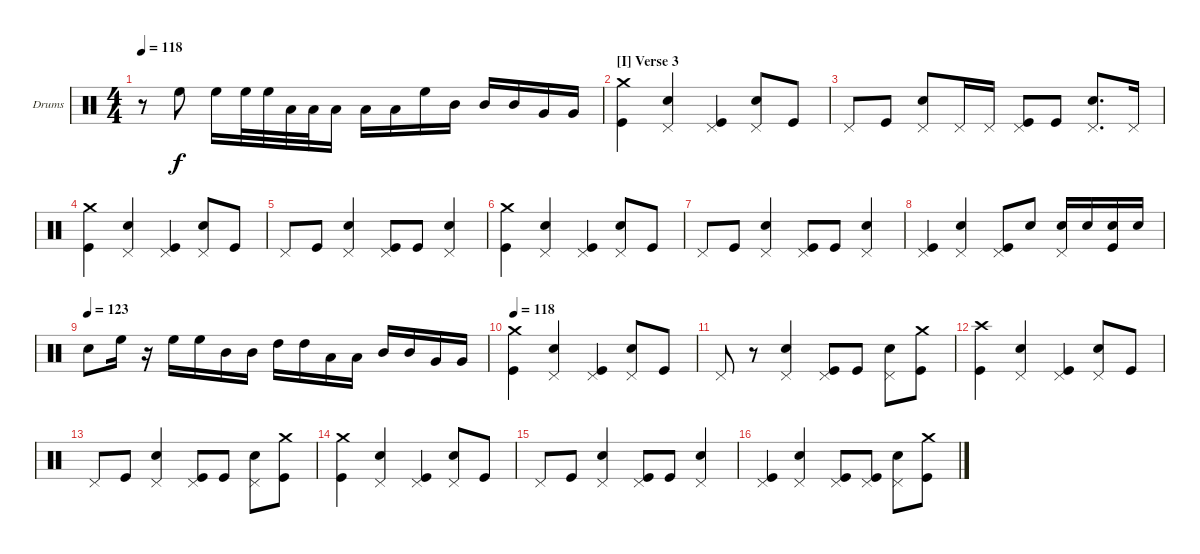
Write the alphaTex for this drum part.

\bracketExtendMode groupsimilarinstruments
\firstSystemTrackNameOrientation horizontal
\otherSystemsTrackNameOrientation horizontal
\track ("Vinny Appice" "Drums") {instrument percussion}
\staff {score}
\articulation defaults
\ts (4 4)
\tempo 118
\clef neutral
\ks c
r.8{dy f} "High Floor Tom (hit)".8 "High Floor Tom (hit)".16 "High Floor Tom (hit)".32 "High Floor Tom (hit)".32 "Low Tom (hit)".32 "Low Tom (hit)".32 "Low Tom (hit)".16 "Low Tom (hit)".16 "Low Tom (hit)".16 "High Floor Tom (hit)".16 "Mid Tom (hit)".16 "Mid Tom (hit)".16 "Mid Tom (hit)".16 "Very Low Tom (hit)".16 "Very Low Tom (hit)".16 |
\section ("I" "Verse 3")
("Kick (hit)" "Crash medium (hit)").4 ("Pedal Hi-Hat (hit)" "Snare (hit) 2").4 ("Pedal Hi-Hat (hit)" "Kick (hit)").4 ("Pedal Hi-Hat (hit)" "Snare (hit) 2").8 "Kick (hit)".8 |
"Pedal Hi-Hat (hit)".8 "Kick (hit)".8 ("Pedal Hi-Hat (hit)" "Snare (hit) 2").8 "Pedal Hi-Hat (hit)".16 "Pedal Hi-Hat (hit)".16 ("Pedal Hi-Hat (hit)" "Kick (hit)").8 "Kick (hit)".8 ("Pedal Hi-Hat (hit)" "Snare (hit) 2").8{d} "Pedal Hi-Hat (hit)".16 |
("Crash medium (hit)" "Kick (hit)").4 ("Pedal Hi-Hat (hit)" "Snare (hit) 2").4 ("Pedal Hi-Hat (hit)" "Kick (hit)").4 ("Pedal Hi-Hat (hit)" "Snare (hit) 2").8 "Kick (hit)".8 |
"Pedal Hi-Hat (hit)".8 "Kick (hit)".8 ("Pedal Hi-Hat (hit)" "Snare (hit) 2").4 ("Pedal Hi-Hat (hit)" "Kick (hit)").8 "Kick (hit)".8 ("Pedal Hi-Hat (hit)" "Snare (hit) 2").4 |
("Kick (hit)" "Crash medium (hit)").4 ("Pedal Hi-Hat (hit)" "Snare (hit) 2").4 ("Pedal Hi-Hat (hit)" "Kick (hit)").4 ("Pedal Hi-Hat (hit)" "Snare (hit) 2").8 "Kick (hit)".8 |
"Pedal Hi-Hat (hit)".8 "Kick (hit)".8 ("Pedal Hi-Hat (hit)" "Snare (hit) 2").4 ("Pedal Hi-Hat (hit)" "Kick (hit)").8 "Kick (hit)".8 ("Pedal Hi-Hat (hit)" "Snare (hit) 2").4 |
("Pedal Hi-Hat (hit)" "Kick (hit)").4 ("Pedal Hi-Hat (hit)" "Snare (hit) 2").4 ("Pedal Hi-Hat (hit)" "Kick (hit)").8 "Snare (hit) 2".8 ("Snare (hit) 2" "Pedal Hi-Hat (hit)").16 "Snare (hit) 2".16 ("Snare (hit) 2" "Kick (hit)").16 "Snare (hit) 2".16 |
\tempo (123)
"Snare (hit) 2".8 "High Floor Tom (hit)".16 r.16 "High Floor Tom (hit)".16 "High Floor Tom (hit)".16 "Mid Tom (hit)".16 "Mid Tom (hit)".16 "High Tom (hit)".16 "High Tom (hit)".16 "Low Tom (hit)".16 "Low Tom (hit)".16 "Mid Tom (hit)".16 "Mid Tom (hit)".16 "Very Low Tom (hit)".16 "Very Low Tom (hit)".16 |
\tempo 118
("Kick (hit)" "Crash medium (hit)").4 ("Pedal Hi-Hat (hit)" "Snare (hit) 2").4 ("Pedal Hi-Hat (hit)" "Kick (hit)").4 ("Pedal Hi-Hat (hit)" "Snare (hit) 2").8 "Kick (hit)".8 |
"Pedal Hi-Hat (hit)".8 r.8 ("Pedal Hi-Hat (hit)" "Snare (hit) 2").4 ("Pedal Hi-Hat (hit)" "Kick (hit)").8 "Kick (hit)".8 ("Pedal Hi-Hat (hit)" "Snare (hit) 2").8 ("Kick (hit)" "Crash medium (hit)").8 |
("Crash high (hit)" "Kick (hit)").4 ("Pedal Hi-Hat (hit)" "Snare (hit) 2").4 ("Pedal Hi-Hat (hit)" "Kick (hit)").4 ("Pedal Hi-Hat (hit)" "Snare (hit) 2").8 "Kick (hit)".8 |
"Pedal Hi-Hat (hit)".8 "Kick (hit)".8 ("Pedal Hi-Hat (hit)" "Snare (hit) 2").4 ("Pedal Hi-Hat (hit)" "Kick (hit)").8 "Kick (hit)".8 ("Pedal Hi-Hat (hit)" "Snare (hit) 2").8 ("Kick (hit)" "Crash medium (hit)").8 |
("Kick (hit)" "Crash medium (hit)").4 ("Pedal Hi-Hat (hit)" "Snare (hit) 2").4 ("Pedal Hi-Hat (hit)" "Kick (hit)").4 ("Pedal Hi-Hat (hit)" "Snare (hit) 2").8 "Kick (hit)".8 |
"Pedal Hi-Hat (hit)".8 "Kick (hit)".8 ("Pedal Hi-Hat (hit)" "Snare (hit) 2").4 ("Pedal Hi-Hat (hit)" "Kick (hit)").8 "Kick (hit)".8 ("Pedal Hi-Hat (hit)" "Snare (hit) 2").4 |
("Pedal Hi-Hat (hit)" "Kick (hit)").4 ("Pedal Hi-Hat (hit)" "Snare (hit) 2").4 ("Pedal Hi-Hat (hit)" "Kick (hit)").8 ("Pedal Hi-Hat (hit)" "Kick (hit)").8 ("Pedal Hi-Hat (hit)" "Snare (hit) 2").8 ("Kick (hit)" "Crash medium (hit)").8
